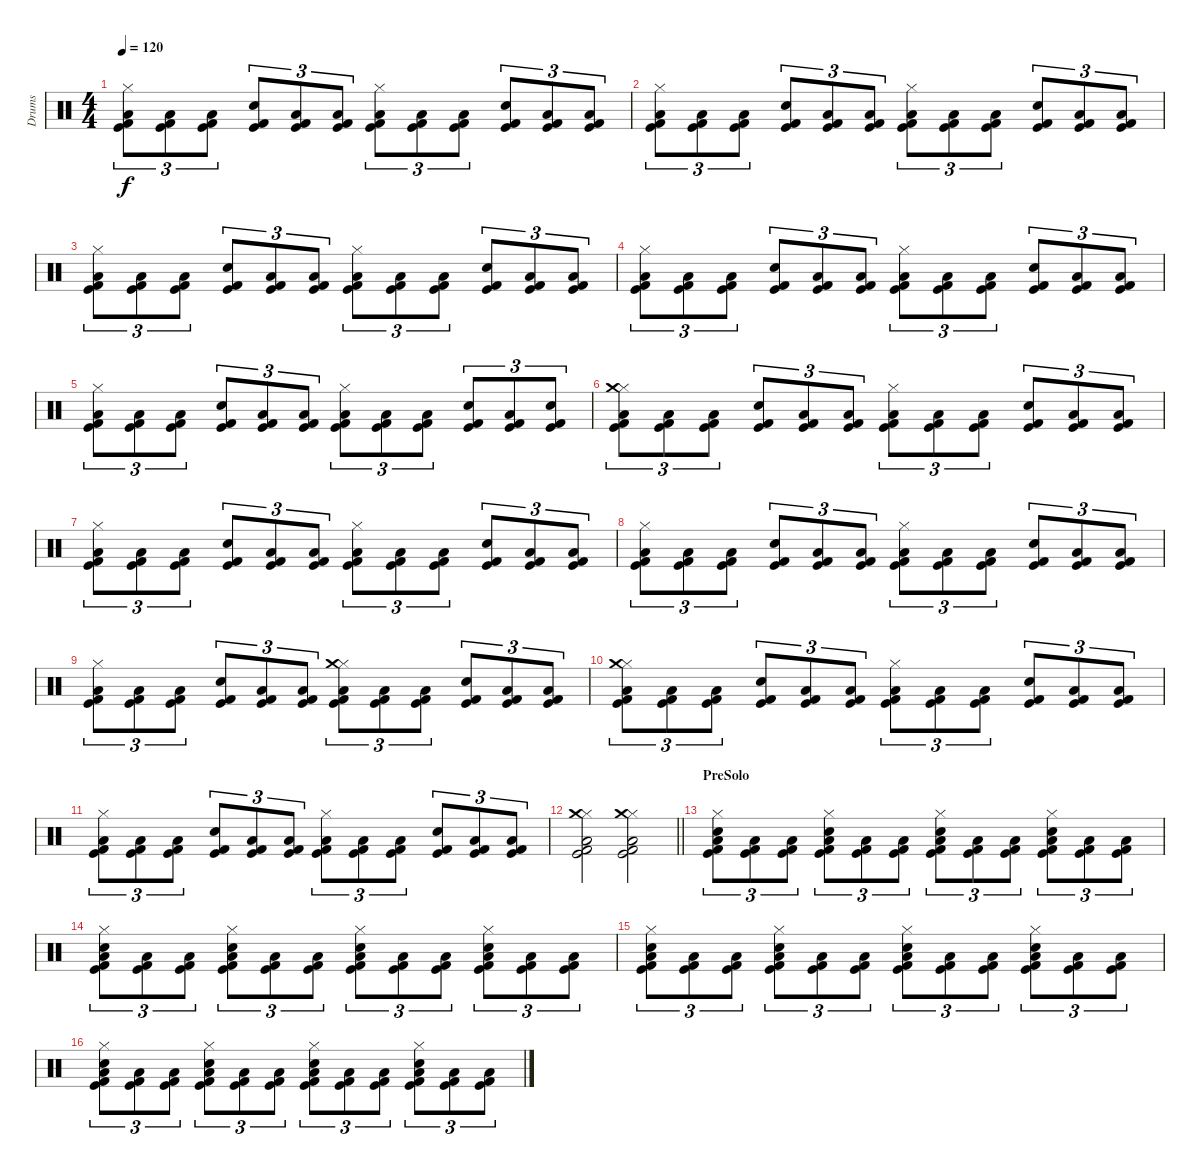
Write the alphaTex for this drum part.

\track ("Drums" "Drums") {instrument percussion}
\staff {score}
\articulation defaults
\ts (4 4)
\tempo 120
\clef neutral
\ks c
("Hi-Hat (closed)" "Low Floor Tom (hit)" "Kick (hit) 2" "Kick (hit)").8{tu (3 2) dy f} ("Low Floor Tom (hit)" "Kick (hit) 2" "Kick (hit)").8{tu (3 2)} ("Low Floor Tom (hit)" "Kick (hit) 2" "Kick (hit)").8{tu (3 2)} ("Snare (hit) 2" "Kick (hit) 2" "Kick (hit)").8{tu (3 2)} ("Low Floor Tom (hit)" "Kick (hit) 2" "Kick (hit)").8{tu (3 2)} ("Low Floor Tom (hit)" "Kick (hit) 2" "Kick (hit)").8{tu (3 2)} ("Hi-Hat (closed)" "Low Floor Tom (hit)" "Kick (hit) 2" "Kick (hit)").8{tu (3 2)} ("Low Floor Tom (hit)" "Kick (hit) 2" "Kick (hit)").8{tu (3 2)} ("Low Floor Tom (hit)" "Kick (hit) 2" "Kick (hit)").8{tu (3 2)} ("Snare (hit) 2" "Kick (hit) 2" "Kick (hit)").8{tu (3 2)} ("Low Floor Tom (hit)" "Kick (hit) 2" "Kick (hit)").8{tu (3 2)} ("Low Floor Tom (hit)" "Kick (hit) 2" "Kick (hit)").8{tu (3 2)} |
("Hi-Hat (closed)" "Low Floor Tom (hit)" "Kick (hit) 2" "Kick (hit)").8{tu (3 2)} ("Low Floor Tom (hit)" "Kick (hit) 2" "Kick (hit)").8{tu (3 2)} ("Low Floor Tom (hit)" "Kick (hit) 2" "Kick (hit)").8{tu (3 2)} ("Snare (hit) 2" "Kick (hit) 2" "Kick (hit)").8{tu (3 2)} ("Low Floor Tom (hit)" "Kick (hit) 2" "Kick (hit)").8{tu (3 2)} ("Low Floor Tom (hit)" "Kick (hit) 2" "Kick (hit)").8{tu (3 2)} ("Hi-Hat (closed)" "Low Floor Tom (hit)" "Kick (hit) 2" "Kick (hit)").8{tu (3 2)} ("Low Floor Tom (hit)" "Kick (hit) 2" "Kick (hit)").8{tu (3 2)} ("Low Floor Tom (hit)" "Kick (hit) 2" "Kick (hit)").8{tu (3 2)} ("Snare (hit) 2" "Kick (hit) 2" "Kick (hit)").8{tu (3 2)} ("Low Floor Tom (hit)" "Kick (hit) 2" "Kick (hit)").8{tu (3 2)} ("Low Floor Tom (hit)" "Kick (hit) 2" "Kick (hit)").8{tu (3 2)} |
("Hi-Hat (closed)" "Low Floor Tom (hit)" "Kick (hit) 2" "Kick (hit)").8{tu (3 2)} ("Low Floor Tom (hit)" "Kick (hit) 2" "Kick (hit)").8{tu (3 2)} ("Low Floor Tom (hit)" "Kick (hit) 2" "Kick (hit)").8{tu (3 2)} ("Snare (hit) 2" "Kick (hit) 2" "Kick (hit)").8{tu (3 2)} ("Low Floor Tom (hit)" "Kick (hit) 2" "Kick (hit)").8{tu (3 2)} ("Low Floor Tom (hit)" "Kick (hit) 2" "Kick (hit)").8{tu (3 2)} ("Hi-Hat (closed)" "Low Floor Tom (hit)" "Kick (hit) 2" "Kick (hit)").8{tu (3 2)} ("Low Floor Tom (hit)" "Kick (hit) 2" "Kick (hit)").8{tu (3 2)} ("Low Floor Tom (hit)" "Kick (hit) 2" "Kick (hit)").8{tu (3 2)} ("Snare (hit) 2" "Kick (hit) 2" "Kick (hit)").8{tu (3 2)} ("Low Floor Tom (hit)" "Kick (hit) 2" "Kick (hit)").8{tu (3 2)} ("Low Floor Tom (hit)" "Kick (hit) 2" "Kick (hit)").8{tu (3 2)} |
("Hi-Hat (closed)" "Low Floor Tom (hit)" "Kick (hit) 2" "Kick (hit)").8{tu (3 2)} ("Low Floor Tom (hit)" "Kick (hit) 2" "Kick (hit)").8{tu (3 2)} ("Low Floor Tom (hit)" "Kick (hit) 2" "Kick (hit)").8{tu (3 2)} ("Snare (hit) 2" "Kick (hit) 2" "Kick (hit)").8{tu (3 2)} ("Low Floor Tom (hit)" "Kick (hit) 2" "Kick (hit)").8{tu (3 2)} ("Low Floor Tom (hit)" "Kick (hit) 2" "Kick (hit)").8{tu (3 2)} ("Hi-Hat (closed)" "Low Floor Tom (hit)" "Kick (hit) 2" "Kick (hit)").8{tu (3 2)} ("Low Floor Tom (hit)" "Kick (hit) 2" "Kick (hit)").8{tu (3 2)} ("Low Floor Tom (hit)" "Kick (hit) 2" "Kick (hit)").8{tu (3 2)} ("Snare (hit) 2" "Kick (hit) 2" "Kick (hit)").8{tu (3 2)} ("Low Floor Tom (hit)" "Kick (hit) 2" "Kick (hit)").8{tu (3 2)} ("Low Floor Tom (hit)" "Kick (hit) 2" "Kick (hit)").8{tu (3 2)} |
("Hi-Hat (closed)" "Low Floor Tom (hit)" "Kick (hit) 2" "Kick (hit)").8{tu (3 2)} ("Low Floor Tom (hit)" "Kick (hit) 2" "Kick (hit)").8{tu (3 2)} ("Low Floor Tom (hit)" "Kick (hit) 2" "Kick (hit)").8{tu (3 2)} ("Snare (hit) 2" "Kick (hit) 2" "Kick (hit)").8{tu (3 2)} ("Low Floor Tom (hit)" "Kick (hit) 2" "Kick (hit)").8{tu (3 2)} ("Low Floor Tom (hit)" "Kick (hit) 2" "Kick (hit)").8{tu (3 2)} ("Hi-Hat (closed)" "Low Floor Tom (hit)" "Kick (hit) 2" "Kick (hit)").8{tu (3 2)} ("Low Floor Tom (hit)" "Kick (hit) 2" "Kick (hit)").8{tu (3 2)} ("Low Floor Tom (hit)" "Kick (hit) 2" "Kick (hit)").8{tu (3 2)} ("Snare (hit) 2" "Kick (hit) 2" "Kick (hit)").8{tu (3 2)} ("Low Floor Tom (hit)" "Kick (hit) 2" "Kick (hit)").8{tu (3 2)} ("Snare (hit) 2" "Kick (hit) 2" "Kick (hit)").8{tu (3 2)} |
("Hi-Hat (closed)" "Crash medium (hit)" "Low Floor Tom (hit)" "Kick (hit) 2" "Kick (hit)").8{tu (3 2)} ("Low Floor Tom (hit)" "Kick (hit) 2" "Kick (hit)").8{tu (3 2)} ("Low Floor Tom (hit)" "Kick (hit) 2" "Kick (hit)").8{tu (3 2)} ("Snare (hit) 2" "Kick (hit) 2" "Kick (hit)").8{tu (3 2)} ("Low Floor Tom (hit)" "Kick (hit) 2" "Kick (hit)").8{tu (3 2)} ("Low Floor Tom (hit)" "Kick (hit) 2" "Kick (hit)").8{tu (3 2)} ("Hi-Hat (closed)" "Low Floor Tom (hit)" "Kick (hit) 2" "Kick (hit)").8{tu (3 2)} ("Low Floor Tom (hit)" "Kick (hit) 2" "Kick (hit)").8{tu (3 2)} ("Low Floor Tom (hit)" "Kick (hit) 2" "Kick (hit)").8{tu (3 2)} ("Snare (hit) 2" "Kick (hit) 2" "Kick (hit)").8{tu (3 2)} ("Low Floor Tom (hit)" "Kick (hit) 2" "Kick (hit)").8{tu (3 2)} ("Low Floor Tom (hit)" "Kick (hit) 2" "Kick (hit)").8{tu (3 2)} |
("Hi-Hat (closed)" "Low Floor Tom (hit)" "Kick (hit) 2" "Kick (hit)").8{tu (3 2)} ("Low Floor Tom (hit)" "Kick (hit) 2" "Kick (hit)").8{tu (3 2)} ("Low Floor Tom (hit)" "Kick (hit) 2" "Kick (hit)").8{tu (3 2)} ("Snare (hit) 2" "Kick (hit) 2" "Kick (hit)").8{tu (3 2)} ("Low Floor Tom (hit)" "Kick (hit) 2" "Kick (hit)").8{tu (3 2)} ("Low Floor Tom (hit)" "Kick (hit) 2" "Kick (hit)").8{tu (3 2)} ("Hi-Hat (closed)" "Low Floor Tom (hit)" "Kick (hit) 2" "Kick (hit)").8{tu (3 2)} ("Low Floor Tom (hit)" "Kick (hit) 2" "Kick (hit)").8{tu (3 2)} ("Low Floor Tom (hit)" "Kick (hit) 2" "Kick (hit)").8{tu (3 2)} ("Snare (hit) 2" "Kick (hit) 2" "Kick (hit)").8{tu (3 2)} ("Low Floor Tom (hit)" "Kick (hit) 2" "Kick (hit)").8{tu (3 2)} ("Low Floor Tom (hit)" "Kick (hit) 2" "Kick (hit)").8{tu (3 2)} |
("Hi-Hat (closed)" "Low Floor Tom (hit)" "Kick (hit) 2" "Kick (hit)").8{tu (3 2)} ("Low Floor Tom (hit)" "Kick (hit) 2" "Kick (hit)").8{tu (3 2)} ("Low Floor Tom (hit)" "Kick (hit) 2" "Kick (hit)").8{tu (3 2)} ("Snare (hit) 2" "Kick (hit) 2" "Kick (hit)").8{tu (3 2)} ("Low Floor Tom (hit)" "Kick (hit) 2" "Kick (hit)").8{tu (3 2)} ("Low Floor Tom (hit)" "Kick (hit) 2" "Kick (hit)").8{tu (3 2)} ("Hi-Hat (closed)" "Low Floor Tom (hit)" "Kick (hit) 2" "Kick (hit)").8{tu (3 2)} ("Low Floor Tom (hit)" "Kick (hit) 2" "Kick (hit)").8{tu (3 2)} ("Low Floor Tom (hit)" "Kick (hit) 2" "Kick (hit)").8{tu (3 2)} ("Snare (hit) 2" "Kick (hit) 2" "Kick (hit)").8{tu (3 2)} ("Low Floor Tom (hit)" "Kick (hit) 2" "Kick (hit)").8{tu (3 2)} ("Low Floor Tom (hit)" "Kick (hit) 2" "Kick (hit)").8{tu (3 2)} |
("Hi-Hat (closed)" "Low Floor Tom (hit)" "Kick (hit) 2" "Kick (hit)").8{tu (3 2)} ("Low Floor Tom (hit)" "Kick (hit) 2" "Kick (hit)").8{tu (3 2)} ("Low Floor Tom (hit)" "Kick (hit) 2" "Kick (hit)").8{tu (3 2)} ("Snare (hit) 2" "Kick (hit) 2" "Kick (hit)").8{tu (3 2)} ("Low Floor Tom (hit)" "Kick (hit) 2" "Kick (hit)").8{tu (3 2)} ("Low Floor Tom (hit)" "Kick (hit) 2" "Kick (hit)").8{tu (3 2)} ("Hi-Hat (closed)" "Crash medium (hit)" "Low Floor Tom (hit)" "Kick (hit) 2" "Kick (hit)").8{tu (3 2)} ("Low Floor Tom (hit)" "Kick (hit) 2" "Kick (hit)").8{tu (3 2)} ("Low Floor Tom (hit)" "Kick (hit) 2" "Kick (hit)").8{tu (3 2)} ("Snare (hit) 2" "Kick (hit) 2" "Kick (hit)").8{tu (3 2)} ("Low Floor Tom (hit)" "Kick (hit) 2" "Kick (hit)").8{tu (3 2)} ("Low Floor Tom (hit)" "Kick (hit) 2" "Kick (hit)").8{tu (3 2)} |
("Hi-Hat (closed)" "Crash medium (hit)" "Low Floor Tom (hit)" "Kick (hit) 2" "Kick (hit)").8{tu (3 2)} ("Low Floor Tom (hit)" "Kick (hit) 2" "Kick (hit)").8{tu (3 2)} ("Low Floor Tom (hit)" "Kick (hit) 2" "Kick (hit)").8{tu (3 2)} ("Snare (hit) 2" "Kick (hit) 2" "Kick (hit)").8{tu (3 2)} ("Low Floor Tom (hit)" "Kick (hit) 2" "Kick (hit)").8{tu (3 2)} ("Low Floor Tom (hit)" "Kick (hit) 2" "Kick (hit)").8{tu (3 2)} ("Hi-Hat (closed)" "Low Floor Tom (hit)" "Kick (hit) 2" "Kick (hit)").8{tu (3 2)} ("Low Floor Tom (hit)" "Kick (hit) 2" "Kick (hit)").8{tu (3 2)} ("Low Floor Tom (hit)" "Kick (hit) 2" "Kick (hit)").8{tu (3 2)} ("Snare (hit) 2" "Kick (hit) 2" "Kick (hit)").8{tu (3 2)} ("Low Floor Tom (hit)" "Kick (hit) 2" "Kick (hit)").8{tu (3 2)} ("Low Floor Tom (hit)" "Kick (hit) 2" "Kick (hit)").8{tu (3 2)} |
("Hi-Hat (closed)" "Low Floor Tom (hit)" "Kick (hit) 2" "Kick (hit)").8{tu (3 2)} ("Low Floor Tom (hit)" "Kick (hit) 2" "Kick (hit)").8{tu (3 2)} ("Low Floor Tom (hit)" "Kick (hit) 2" "Kick (hit)").8{tu (3 2)} ("Snare (hit) 2" "Kick (hit) 2" "Kick (hit)").8{tu (3 2)} ("Low Floor Tom (hit)" "Kick (hit) 2" "Kick (hit)").8{tu (3 2)} ("Low Floor Tom (hit)" "Kick (hit) 2" "Kick (hit)").8{tu (3 2)} ("Hi-Hat (closed)" "Low Floor Tom (hit)" "Kick (hit) 2" "Kick (hit)").8{tu (3 2)} ("Low Floor Tom (hit)" "Kick (hit) 2" "Kick (hit)").8{tu (3 2)} ("Low Floor Tom (hit)" "Kick (hit) 2" "Kick (hit)").8{tu (3 2)} ("Snare (hit) 2" "Kick (hit) 2" "Kick (hit)").8{tu (3 2)} ("Low Floor Tom (hit)" "Kick (hit) 2" "Kick (hit)").8{tu (3 2)} ("Low Floor Tom (hit)" "Kick (hit) 2" "Kick (hit)").8{tu (3 2)} |
\barLineRight lightlight
("Hi-Hat (closed)" "Crash medium (hit)" "Low Floor Tom (hit)" "Kick (hit) 2" "Kick (hit)").2 ("Hi-Hat (closed)" "Crash medium (hit)" "Low Floor Tom (hit)" "Kick (hit) 2" "Kick (hit)").2 |
\section ("" "PreSolo")
("Hi-Hat (closed)" "Snare (hit) 2" "Low Floor Tom (hit)" "Kick (hit) 2" "Kick (hit)").8{tu (3 2)} ("Low Floor Tom (hit)" "Kick (hit) 2" "Kick (hit)").8{tu (3 2)} ("Low Floor Tom (hit)" "Kick (hit) 2" "Kick (hit)").8{tu (3 2)} ("Hi-Hat (closed)" "Snare (hit) 2" "Low Floor Tom (hit)" "Kick (hit) 2" "Kick (hit)").8{tu (3 2)} ("Low Floor Tom (hit)" "Kick (hit) 2" "Kick (hit)").8{tu (3 2)} ("Low Floor Tom (hit)" "Kick (hit) 2" "Kick (hit)").8{tu (3 2)} ("Hi-Hat (closed)" "Snare (hit) 2" "Low Floor Tom (hit)" "Kick (hit) 2" "Kick (hit)").8{tu (3 2)} ("Low Floor Tom (hit)" "Kick (hit) 2" "Kick (hit)").8{tu (3 2)} ("Low Floor Tom (hit)" "Kick (hit) 2" "Kick (hit)").8{tu (3 2)} ("Hi-Hat (closed)" "Snare (hit) 2" "Low Floor Tom (hit)" "Kick (hit) 2" "Kick (hit)").8{tu (3 2)} ("Low Floor Tom (hit)" "Kick (hit) 2" "Kick (hit)").8{tu (3 2)} ("Low Floor Tom (hit)" "Kick (hit) 2" "Kick (hit)").8{tu (3 2)} |
("Hi-Hat (closed)" "Snare (hit) 2" "Low Floor Tom (hit)" "Kick (hit) 2" "Kick (hit)").8{tu (3 2)} ("Low Floor Tom (hit)" "Kick (hit) 2" "Kick (hit)").8{tu (3 2)} ("Low Floor Tom (hit)" "Kick (hit) 2" "Kick (hit)").8{tu (3 2)} ("Hi-Hat (closed)" "Snare (hit) 2" "Low Floor Tom (hit)" "Kick (hit) 2" "Kick (hit)").8{tu (3 2)} ("Low Floor Tom (hit)" "Kick (hit) 2" "Kick (hit)").8{tu (3 2)} ("Low Floor Tom (hit)" "Kick (hit) 2" "Kick (hit)").8{tu (3 2)} ("Hi-Hat (closed)" "Snare (hit) 2" "Low Floor Tom (hit)" "Kick (hit) 2" "Kick (hit)").8{tu (3 2)} ("Low Floor Tom (hit)" "Kick (hit) 2" "Kick (hit)").8{tu (3 2)} ("Low Floor Tom (hit)" "Kick (hit) 2" "Kick (hit)").8{tu (3 2)} ("Hi-Hat (closed)" "Snare (hit) 2" "Low Floor Tom (hit)" "Kick (hit) 2" "Kick (hit)").8{tu (3 2)} ("Low Floor Tom (hit)" "Kick (hit) 2" "Kick (hit)").8{tu (3 2)} ("Low Floor Tom (hit)" "Kick (hit) 2" "Kick (hit)").8{tu (3 2)} |
("Hi-Hat (closed)" "Snare (hit) 2" "Low Floor Tom (hit)" "Kick (hit) 2" "Kick (hit)").8{tu (3 2)} ("Low Floor Tom (hit)" "Kick (hit) 2" "Kick (hit)").8{tu (3 2)} ("Low Floor Tom (hit)" "Kick (hit) 2" "Kick (hit)").8{tu (3 2)} ("Hi-Hat (closed)" "Snare (hit) 2" "Low Floor Tom (hit)" "Kick (hit) 2" "Kick (hit)").8{tu (3 2)} ("Low Floor Tom (hit)" "Kick (hit) 2" "Kick (hit)").8{tu (3 2)} ("Low Floor Tom (hit)" "Kick (hit) 2" "Kick (hit)").8{tu (3 2)} ("Hi-Hat (closed)" "Snare (hit) 2" "Low Floor Tom (hit)" "Kick (hit) 2" "Kick (hit)").8{tu (3 2)} ("Low Floor Tom (hit)" "Kick (hit) 2" "Kick (hit)").8{tu (3 2)} ("Low Floor Tom (hit)" "Kick (hit) 2" "Kick (hit)").8{tu (3 2)} ("Hi-Hat (closed)" "Snare (hit) 2" "Low Floor Tom (hit)" "Kick (hit) 2" "Kick (hit)").8{tu (3 2)} ("Low Floor Tom (hit)" "Kick (hit) 2" "Kick (hit)").8{tu (3 2)} ("Low Floor Tom (hit)" "Kick (hit) 2" "Kick (hit)").8{tu (3 2)} |
("Hi-Hat (closed)" "Snare (hit) 2" "Low Floor Tom (hit)" "Kick (hit) 2" "Kick (hit)").8{tu (3 2)} ("Low Floor Tom (hit)" "Kick (hit) 2" "Kick (hit)").8{tu (3 2)} ("Low Floor Tom (hit)" "Kick (hit) 2" "Kick (hit)").8{tu (3 2)} ("Hi-Hat (closed)" "Snare (hit) 2" "Low Floor Tom (hit)" "Kick (hit) 2" "Kick (hit)").8{tu (3 2)} ("Low Floor Tom (hit)" "Kick (hit) 2" "Kick (hit)").8{tu (3 2)} ("Low Floor Tom (hit)" "Kick (hit) 2" "Kick (hit)").8{tu (3 2)} ("Hi-Hat (closed)" "Snare (hit) 2" "Low Floor Tom (hit)" "Kick (hit) 2" "Kick (hit)").8{tu (3 2)} ("Low Floor Tom (hit)" "Kick (hit) 2" "Kick (hit)").8{tu (3 2)} ("Low Floor Tom (hit)" "Kick (hit) 2" "Kick (hit)").8{tu (3 2)} ("Hi-Hat (closed)" "Snare (hit) 2" "Low Floor Tom (hit)" "Kick (hit) 2" "Kick (hit)").8{tu (3 2)} ("Low Floor Tom (hit)" "Kick (hit) 2" "Kick (hit)").8{tu (3 2)} ("Low Floor Tom (hit)" "Kick (hit) 2" "Kick (hit)").8{tu (3 2)}
